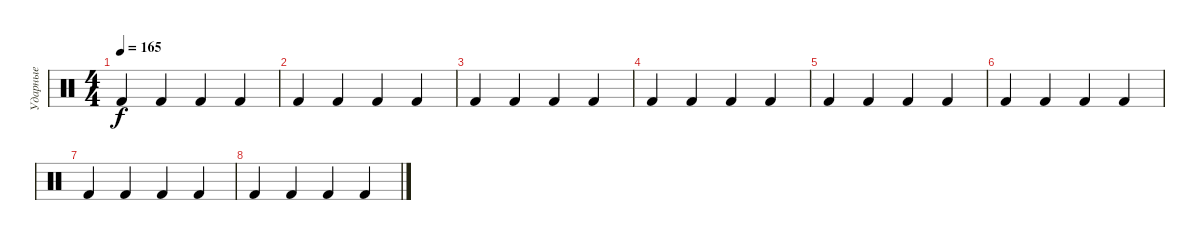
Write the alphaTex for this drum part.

\track ("Ударные" "Ударные") {instrument percussion}
\staff {score}
\articulation defaults
\ts (4 4)
\tempo 165
\clef neutral
\ks c "Kick (hit) 2".4{dy f} "Kick (hit) 2".4 "Kick (hit) 2".4 "Kick (hit) 2".4
|
"Kick (hit) 2".4 "Kick (hit) 2".4 "Kick (hit) 2".4 "Kick (hit) 2".4 |
"Kick (hit) 2".4 "Kick (hit) 2".4 "Kick (hit) 2".4 "Kick (hit) 2".4 |
"Kick (hit) 2".4 "Kick (hit) 2".4 "Kick (hit) 2".4 "Kick (hit) 2".4 |
"Kick (hit) 2".4 "Kick (hit) 2".4 "Kick (hit) 2".4 "Kick (hit) 2".4 |
"Kick (hit) 2".4 "Kick (hit) 2".4 "Kick (hit) 2".4 "Kick (hit) 2".4 |
"Kick (hit) 2".4 "Kick (hit) 2".4 "Kick (hit) 2".4 "Kick (hit) 2".4 |
"Kick (hit) 2".4 "Kick (hit) 2".4 "Kick (hit) 2".4 "Kick (hit) 2".4
